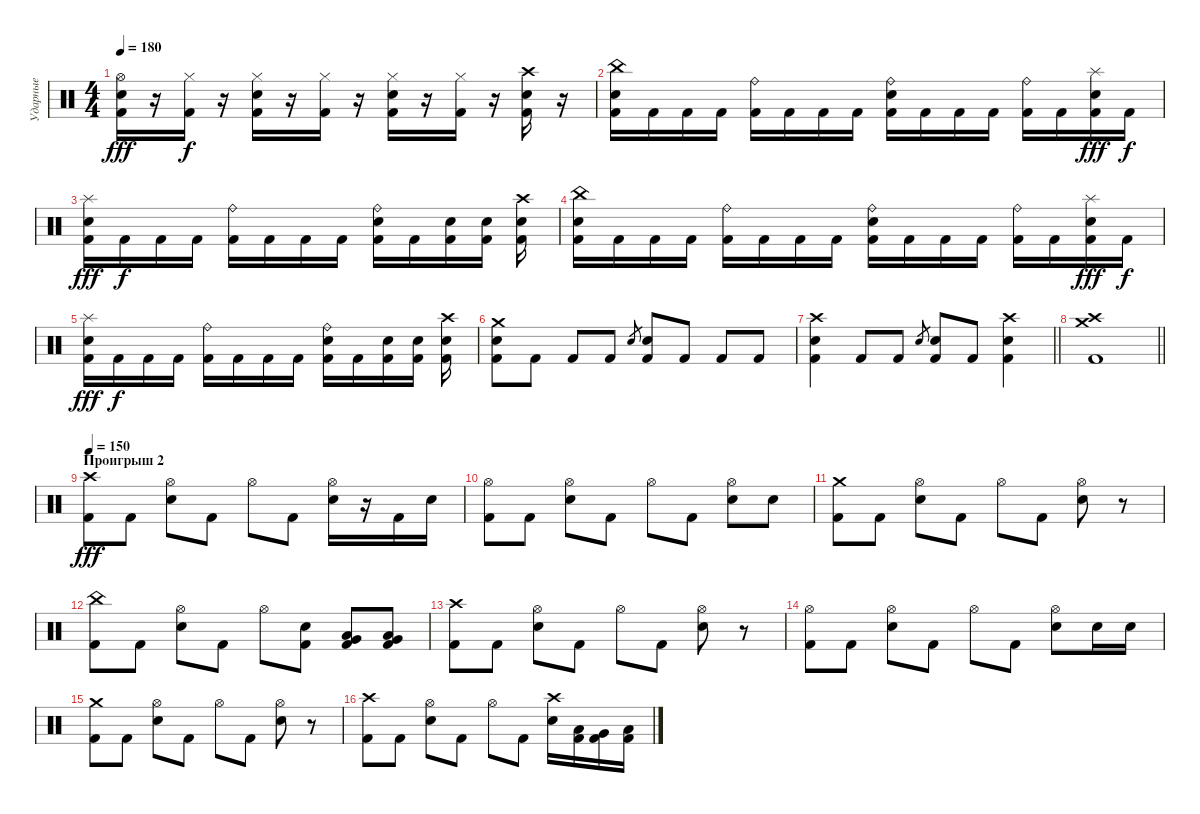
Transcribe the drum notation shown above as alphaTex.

\track ("Ударные" "Ударные") {instrument percussion}
\staff {score}
\articulation defaults
\ts (4 4)
\tempo 180
\clef neutral
\ks c
("Hi-Hat (open)" "Snare (hit) 2" "Kick (hit) 2").16{dy fff} r.16 ("Hi-Hat (closed)" "Kick (hit) 2").16{dy f} r.16 ("Hi-Hat (closed)" "Snare (hit) 2" "Kick (hit) 2").16 r.16 ("Hi-Hat (closed)" "Kick (hit) 2").16 r.16 ("Hi-Hat (closed)" "Snare (hit) 2" "Kick (hit) 2").16 r.16 ("Hi-Hat (closed)" "Kick (hit) 2").16 r.16 ("Crash high (hit)" "Snare (hit) 2" "Kick (hit) 2").16 r.16 |
("China (hit)" "Snare (hit) 2" "Kick (hit) 2").16 "Kick (hit) 2".16 "Kick (hit) 2".16 "Kick (hit) 2".16 ("Ride (bell)" "Kick (hit) 2").16 "Kick (hit) 2".16 "Kick (hit) 2".16 "Kick (hit) 2".16 ("Ride (bell)" "Snare (hit) 2" "Kick (hit) 2").16 "Kick (hit) 2".16 "Kick (hit) 2".16 "Kick (hit) 2".16 ("Ride (bell)" "Kick (hit) 2").16 "Kick (hit) 2".16 ("Splash (hit)" "Snare (hit) 2" "Kick (hit) 2").16{dy fff} "Kick (hit) 2".16{dy f} |
("Splash (hit)" "Snare (hit) 2" "Kick (hit) 2").16{dy fff} "Kick (hit) 2".16{dy f} "Kick (hit) 2".16 "Kick (hit) 2".16 ("Ride (bell)" "Kick (hit) 2").16 "Kick (hit) 2".16 "Kick (hit) 2".16 "Kick (hit) 2".16 ("Ride (bell)" "Snare (hit) 2" "Kick (hit) 2").16 "Kick (hit) 2".16 ("Snare (hit) 2" "Kick (hit) 2").16 ("Snare (hit) 2" "Kick (hit) 2").16 ("Crash high (hit)" "Snare (hit) 2" "Kick (hit) 2").16 |
("China (hit)" "Snare (hit) 2" "Kick (hit) 2").16 "Kick (hit) 2".16 "Kick (hit) 2".16 "Kick (hit) 2".16 ("Ride (bell)" "Kick (hit) 2").16 "Kick (hit) 2".16 "Kick (hit) 2".16 "Kick (hit) 2".16 ("Ride (bell)" "Snare (hit) 2" "Kick (hit) 2").16 "Kick (hit) 2".16 "Kick (hit) 2".16 "Kick (hit) 2".16 ("Ride (bell)" "Kick (hit) 2").16 "Kick (hit) 2".16 ("Splash (hit)" "Snare (hit) 2" "Kick (hit) 2").16{dy fff} "Kick (hit) 2".16{dy f} |
("Splash (hit)" "Snare (hit) 2" "Kick (hit) 2").16{dy fff} "Kick (hit) 2".16{dy f} "Kick (hit) 2".16 "Kick (hit) 2".16 ("Ride (bell)" "Kick (hit) 2").16 "Kick (hit) 2".16 "Kick (hit) 2".16 "Kick (hit) 2".16 ("Ride (bell)" "Snare (hit) 2" "Kick (hit) 2").16 "Kick (hit) 2".16 ("Snare (hit) 2" "Kick (hit) 2").16 ("Snare (hit) 2" "Kick (hit) 2").16 ("Crash high (hit)" "Snare (hit) 2" "Kick (hit) 2").16 |
("Crash medium (hit)" "Snare (hit) 2" "Kick (hit) 2").8 "Kick (hit) 2".8 "Kick (hit) 2".8 "Kick (hit) 2".8 "Snare (hit) 2".8{gr} ("Snare (hit) 2" "Kick (hit) 2").8 "Kick (hit) 2".8 "Kick (hit) 2".8 "Kick (hit) 2".8 |
\barLineRight lightlight
("Crash high (hit)" "Snare (hit) 2" "Kick (hit) 2").4 "Kick (hit) 2".8 "Kick (hit) 2".8 "Snare (hit) 2".8{gr} ("Snare (hit) 2" "Kick (hit) 2").8 "Kick (hit) 2".8 ("Crash high (hit)" "Snare (hit) 2" "Kick (hit) 2").4 |
\barLineRight lightlight
("Kick (hit) 2" "Crash high (hit)" "Crash medium (hit)").1 |
\section ("" "Проигрыш 2")
\tempo 150
("Crash high (hit)" "Kick (hit) 2").8{dy fff} "Kick (hit) 2".8 ("Hi-Hat (open)" "Snare (hit) 2").8 "Kick (hit) 2".8 "Hi-Hat (open)".8 "Kick (hit) 2".8 ("Hi-Hat (open)" "Snare (hit) 2").16 r.16 "Kick (hit) 2".16 "Snare (hit) 2".16 |
("Hi-Hat (open)" "Kick (hit) 2").8 "Kick (hit) 2".8 ("Hi-Hat (open)" "Snare (hit) 2").8 "Kick (hit) 2".8 "Hi-Hat (open)".8 "Kick (hit) 2".8 ("Hi-Hat (open)" "Snare (hit) 2").8 "Snare (hit) 2".8 |
("Crash medium (hit)" "Kick (hit) 2").8 "Kick (hit) 2".8 ("Hi-Hat (open)" "Snare (hit) 2").8 "Kick (hit) 2".8 "Hi-Hat (open)".8 "Kick (hit) 2".8 ("Hi-Hat (open)" "Snare (hit) 2").8 r.8 |
("China (hit)" "Kick (hit) 2").8 "Kick (hit) 2".8 ("Hi-Hat (open)" "Snare (hit) 2").8 "Kick (hit) 2".8 "Hi-Hat (open)".8 ("Snare (hit) 2" "Kick (hit) 2").8 ("Low Tom (hit)" "Very Low Tom (hit)" "Kick (hit) 2").8 ("Very Low Tom (hit)" "Low Floor Tom (hit)" "Kick (hit) 2").8 |
("Crash high (hit)" "Kick (hit) 2").8 "Kick (hit) 2".8 ("Hi-Hat (open)" "Snare (hit) 2").8 "Kick (hit) 2".8 "Hi-Hat (open)".8 "Kick (hit) 2".8 ("Hi-Hat (open)" "Snare (hit) 2").8 r.8 |
("Hi-Hat (open)" "Kick (hit) 2").8 "Kick (hit) 2".8 ("Hi-Hat (open)" "Snare (hit) 2").8 "Kick (hit) 2".8 "Hi-Hat (open)".8 "Kick (hit) 2".8 ("Hi-Hat (open)" "Snare (hit) 2").8 "Snare (hit) 2".16 "Snare (hit) 2".16 |
("Crash medium (hit)" "Kick (hit) 2").8 "Kick (hit) 2".8 ("Hi-Hat (open)" "Snare (hit) 2").8 "Kick (hit) 2".8 "Hi-Hat (open)".8 "Kick (hit) 2".8 ("Hi-Hat (open)" "Snare (hit) 2").8 r.8 |
("Crash high (hit)" "Kick (hit) 2").8 "Kick (hit) 2".8 ("Hi-Hat (open)" "Snare (hit) 2").8 "Kick (hit) 2".8 "Hi-Hat (open)".8 "Kick (hit) 2".8 ("Crash high (hit)" "Snare (hit) 2").16 ("Low Tom (hit)" "Kick (hit) 2").16 ("Very Low Tom (hit)" "Kick (hit) 2").16 ("Low Floor Tom (hit)" "Kick (hit) 2").16
